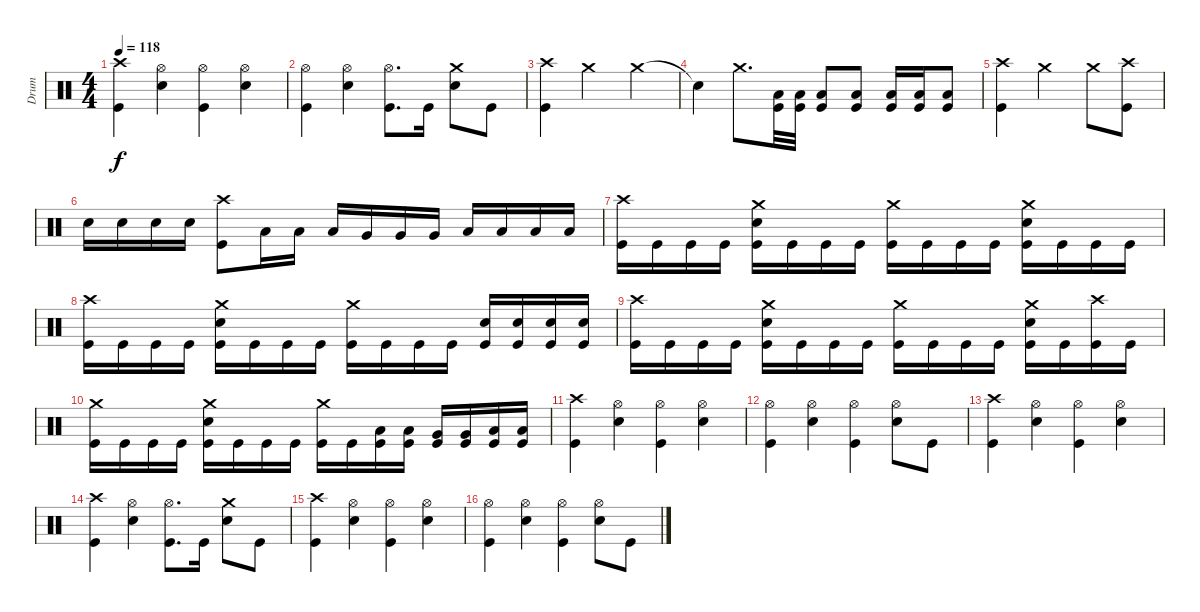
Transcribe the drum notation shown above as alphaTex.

\track ("Drum" "Drum") {instrument percussion}
\staff {score}
\articulation defaults
\ts (4 4)
\tempo 118
\clef neutral
\ks c
("Kick (hit)" "Crash high (hit)").4{dy f} ("Hi-Hat (open)" "Snare (hit) 2").4 ("Kick (hit)" "Hi-Hat (open)").4 ("Hi-Hat (open)" "Snare (hit) 2").4 |
("Kick (hit)" "Hi-Hat (open)").4 ("Hi-Hat (open)" "Snare (hit) 2").4 ("Kick (hit)" "Hi-Hat (open)").8{d} "Kick (hit)".16 ("Crash medium (hit)" "Snare (hit) 2").8 "Kick (hit)".8 |
("Kick (hit)" "Crash high (hit)").4 "Crash medium (hit)".2 "Crash medium (hit)".4 |
"Snare (hit)"{t}.4 "Crash medium (hit)".8{d} ("Kick (hit)" "Low Floor Tom (hit)").32 ("Kick (hit)" "Low Floor Tom (hit)").32 ("Kick (hit)" "Low Floor Tom (hit)").8 ("Kick (hit)" "Low Floor Tom (hit)").8 ("Kick (hit)" "Low Floor Tom (hit)").16 ("Kick (hit)" "Low Floor Tom (hit)").16 ("Kick (hit)" "Low Floor Tom (hit)").8 |
("Kick (hit)" "Crash high (hit)").4 "Crash medium (hit)".2 "Crash medium (hit)".8 ("Kick (hit)" "Crash high (hit)").8 |
"Snare (hit) 2".16 "Snare (hit) 2".16 "Snare (hit) 2".16 "Snare (hit) 2".16 ("Kick (hit)" "Crash high (hit)").8 "Low Tom (hit)".16 "Low Tom (hit)".16 "Low Tom (hit)".16 "Very Low Tom (hit)".16 "Very Low Tom (hit)".16 "Very Low Tom (hit)".16 "Low Floor Tom (hit)".16 "Low Floor Tom (hit)".16 "Low Floor Tom (hit)".16 "Low Floor Tom (hit)".16 |
("Kick (hit)" "Crash high (hit)").16 "Kick (hit)".16 "Kick (hit)".16 "Kick (hit)".16 ("Kick (hit)" "Crash medium (hit)" "Snare (hit) 2").16 "Kick (hit)".16 "Kick (hit)".16 "Kick (hit)".16 ("Kick (hit)" "Crash medium (hit)").16 "Kick (hit)".16 "Kick (hit)".16 "Kick (hit)".16 ("Kick (hit)" "Crash medium (hit)" "Snare (hit) 2").16 "Kick (hit)".16 "Kick (hit)".16 "Kick (hit)".16 |
("Kick (hit)" "Crash high (hit)").16 "Kick (hit)".16 "Kick (hit)".16 "Kick (hit)".16 ("Kick (hit)" "Crash medium (hit)" "Snare (hit) 2").16 "Kick (hit)".16 "Kick (hit)".16 "Kick (hit)".16 ("Kick (hit)" "Crash medium (hit)").16 "Kick (hit)".16 "Kick (hit)".16 "Kick (hit)".16 ("Kick (hit)" "Snare (hit) 2").16 ("Kick (hit)" "Snare (hit) 2").16 ("Kick (hit)" "Snare (hit) 2").16 ("Kick (hit)" "Snare (hit) 2").16 |
("Kick (hit)" "Crash high (hit)").16 "Kick (hit)".16 "Kick (hit)".16 "Kick (hit)".16 ("Kick (hit)" "Crash medium (hit)" "Snare (hit) 2").16 "Kick (hit)".16 "Kick (hit)".16 "Kick (hit)".16 ("Kick (hit)" "Crash medium (hit)").16 "Kick (hit)".16 "Kick (hit)".16 "Kick (hit)".16 ("Kick (hit)" "Crash medium (hit)" "Snare (hit) 2").16 "Kick (hit)".16 ("Kick (hit)" "Crash high (hit)").16 "Kick (hit)".16 |
("Kick (hit)" "Crash medium (hit)").16 "Kick (hit)".16 "Kick (hit)".16 "Kick (hit)".16 ("Kick (hit)" "Crash medium (hit)" "Snare (hit) 2").16 "Kick (hit)".16 "Kick (hit)".16 "Kick (hit)".16 ("Kick (hit)" "Crash medium (hit)").16 "Kick (hit)".16 ("Kick (hit)" "Low Tom (hit)").16 ("Kick (hit)" "Low Tom (hit)").16 ("Kick (hit)" "Very Low Tom (hit)").16 ("Kick (hit)" "Very Low Tom (hit)").16 ("Kick (hit)" "Low Floor Tom (hit)").16 ("Kick (hit)" "Low Floor Tom (hit)").16 |
("Kick (hit)" "Crash high (hit)").4 ("Hi-Hat (open)" "Snare (hit) 2").4 ("Kick (hit)" "Hi-Hat (open)").4 ("Hi-Hat (open)" "Snare (hit) 2").4 |
("Kick (hit)" "Hi-Hat (open)").4 ("Hi-Hat (open)" "Snare (hit) 2").4 ("Kick (hit)" "Hi-Hat (open)").4 ("Hi-Hat (open)" "Snare (hit) 2").8 "Kick (hit)".8 |
("Kick (hit)" "Crash high (hit)").4 ("Hi-Hat (open)" "Snare (hit) 2").4 ("Kick (hit)" "Hi-Hat (open)").4 ("Hi-Hat (open)" "Snare (hit) 2").4 |
("Kick (hit)" "Crash high (hit)").4 ("Hi-Hat (open)" "Snare (hit) 2").4 ("Kick (hit)" "Hi-Hat (open)").8{d} "Kick (hit)".16 ("Crash medium (hit)" "Snare (hit) 2").8 "Kick (hit)".8 |
("Kick (hit)" "Crash high (hit)").4 ("Hi-Hat (open)" "Snare (hit) 2").4 ("Kick (hit)" "Hi-Hat (open)").4 ("Hi-Hat (open)" "Snare (hit) 2").4 |
("Kick (hit)" "Hi-Hat (open)").4 ("Hi-Hat (open)" "Snare (hit) 2").4 ("Kick (hit)" "Hi-Hat (open)").4 ("Hi-Hat (open)" "Snare (hit) 2").8 "Kick (hit)".8
